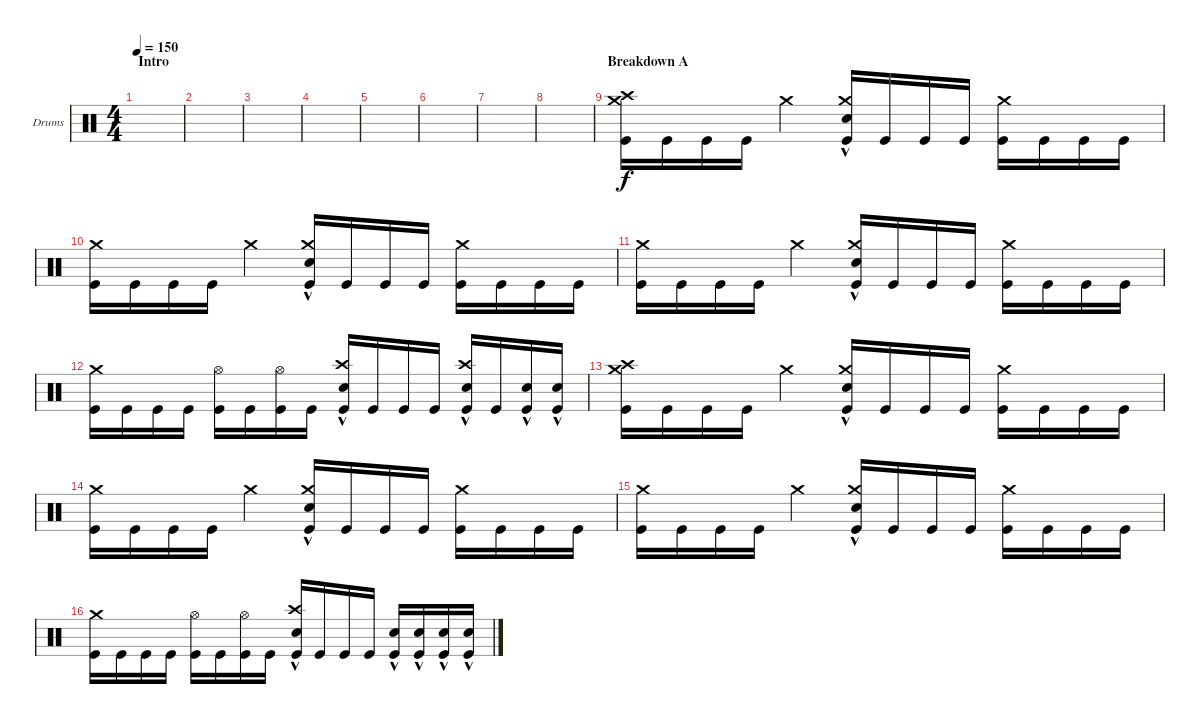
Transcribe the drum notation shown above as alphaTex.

\bracketExtendMode groupsimilarinstruments
\firstSystemTrackNameOrientation horizontal
\otherSystemsTrackNameOrientation horizontal
\track ("Drumkit" "Drums") {instrument percussion}
\staff {score}
\articulation defaults
\ts (4 4)
\section ("" "Intro")
\tempo 150
\clef neutral
\ks aminor
|
|
|
|
|
|
|
|
\section ("" "Breakdown A")
("Kick (hit)" "Crash medium (hit)" "Crash high (hit)").16 "Kick (hit)".16 "Kick (hit)".16 "Kick (hit)".16 "Crash medium (hit)".4 ("Kick (hit)" "Crash medium (hit)" "Snare (hit) 2"{hac}).16 "Kick (hit)".16 "Kick (hit)".16 "Kick (hit)".16 ("Kick (hit)" "Crash medium (hit)").16 "Kick (hit)".16 "Kick (hit)".16 "Kick (hit)".16 |
("Kick (hit)" "Crash medium (hit)").16 "Kick (hit)".16 "Kick (hit)".16 "Kick (hit)".16 "Crash medium (hit)".4 ("Kick (hit)" "Crash medium (hit)" "Snare (hit) 2"{hac}).16 "Kick (hit)".16 "Kick (hit)".16 "Kick (hit)".16 ("Kick (hit)" "Crash medium (hit)").16 "Kick (hit)".16 "Kick (hit)".16 "Kick (hit)".16 |
("Kick (hit)" "Crash medium (hit)").16 "Kick (hit)".16 "Kick (hit)".16 "Kick (hit)".16 "Crash medium (hit)".4 ("Kick (hit)" "Crash medium (hit)" "Snare (hit) 2"{hac}).16 "Kick (hit)".16 "Kick (hit)".16 "Kick (hit)".16 ("Kick (hit)" "Crash medium (hit)").16 "Kick (hit)".16 "Kick (hit)".16 "Kick (hit)".16 |
("Kick (hit)" "Crash medium (hit)").16 "Kick (hit)".16 "Kick (hit)".16 "Kick (hit)".16 ("Kick (hit)" "Hi-Hat (open)").16 "Kick (hit)".16 ("Kick (hit)" "Hi-Hat (open)").16 "Kick (hit)".16 ("Kick (hit)" "Snare (hit) 2"{hac} "Crash high (hit)").16 "Kick (hit)".16 "Kick (hit)".16 "Kick (hit)".16 ("Kick (hit)" "Snare (hit) 2"{hac} "Crash high (hit)").16 "Kick (hit)".16 ("Kick (hit)" "Snare (hit) 2"{hac}).16 ("Kick (hit)" "Snare (hit) 2"{hac}).16 |
("Kick (hit)" "Crash medium (hit)" "Crash high (hit)").16 "Kick (hit)".16 "Kick (hit)".16 "Kick (hit)".16 "Crash medium (hit)".4 ("Kick (hit)" "Crash medium (hit)" "Snare (hit) 2"{hac}).16 "Kick (hit)".16 "Kick (hit)".16 "Kick (hit)".16 ("Kick (hit)" "Crash medium (hit)").16 "Kick (hit)".16 "Kick (hit)".16 "Kick (hit)".16 |
("Kick (hit)" "Crash medium (hit)").16 "Kick (hit)".16 "Kick (hit)".16 "Kick (hit)".16 "Crash medium (hit)".4 ("Kick (hit)" "Crash medium (hit)" "Snare (hit) 2"{hac}).16 "Kick (hit)".16 "Kick (hit)".16 "Kick (hit)".16 ("Kick (hit)" "Crash medium (hit)").16 "Kick (hit)".16 "Kick (hit)".16 "Kick (hit)".16 |
("Kick (hit)" "Crash medium (hit)").16 "Kick (hit)".16 "Kick (hit)".16 "Kick (hit)".16 "Crash medium (hit)".4 ("Kick (hit)" "Crash medium (hit)" "Snare (hit) 2"{hac}).16 "Kick (hit)".16 "Kick (hit)".16 "Kick (hit)".16 ("Kick (hit)" "Crash medium (hit)").16 "Kick (hit)".16 "Kick (hit)".16 "Kick (hit)".16 |
("Kick (hit)" "Crash medium (hit)").16 "Kick (hit)".16 "Kick (hit)".16 "Kick (hit)".16 ("Kick (hit)" "Hi-Hat (open)").16 "Kick (hit)".16 ("Kick (hit)" "Hi-Hat (open)").16 "Kick (hit)".16 ("Kick (hit)" "Snare (hit) 2"{hac} "Crash high (hit)").16 "Kick (hit)".16 "Kick (hit)".16 "Kick (hit)".16 ("Kick (hit)" "Snare (hit) 2"{hac}).16 ("Kick (hit)" "Snare (hit) 2"{hac}).16 ("Kick (hit)" "Snare (hit) 2"{hac}).16 ("Kick (hit)" "Snare (hit) 2"{hac}).16
